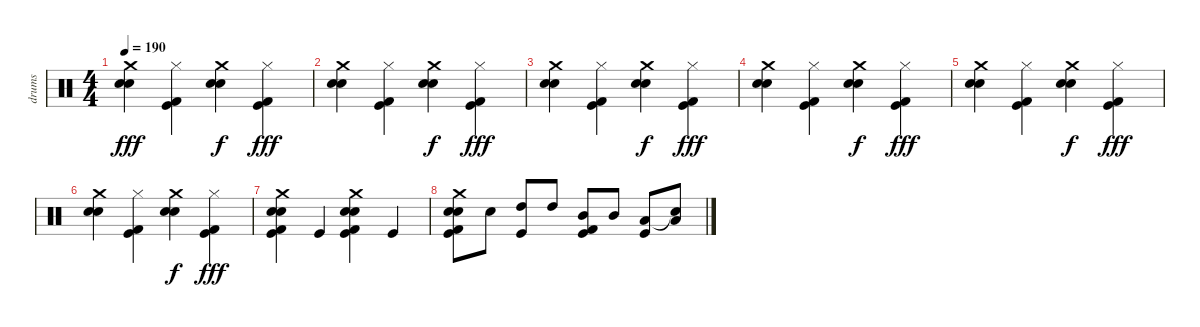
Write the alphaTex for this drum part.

\track ("drums" "drums") {instrument percussion}
\staff {score}
\articulation defaults
\ts (4 4)
\tempo 190
\clef neutral
\ks c
("Crash medium (hit)" "Electric Snare (hit)" "Snare (hit) 2").4{dy fff} ("Hi-Hat (closed)" "Kick (hit) 2" "Kick (hit)").4 ("Crash medium (hit)" "Electric Snare (hit)" "Snare (hit) 2").4{dy f} ("Hi-Hat (closed)" "Kick (hit) 2" "Kick (hit)").4{dy fff} |
("Crash medium (hit)" "Electric Snare (hit)" "Snare (hit) 2").4 ("Hi-Hat (closed)" "Kick (hit) 2" "Kick (hit)").4 ("Crash medium (hit)" "Electric Snare (hit)" "Snare (hit) 2").4{dy f} ("Hi-Hat (closed)" "Kick (hit) 2" "Kick (hit)").4{dy fff} |
("Crash medium (hit)" "Electric Snare (hit)" "Snare (hit) 2").4 ("Hi-Hat (closed)" "Kick (hit) 2" "Kick (hit)").4 ("Crash medium (hit)" "Electric Snare (hit)" "Snare (hit) 2").4{dy f} ("Hi-Hat (closed)" "Kick (hit) 2" "Kick (hit)").4{dy fff} |
("Crash medium (hit)" "Electric Snare (hit)" "Snare (hit) 2").4 ("Hi-Hat (closed)" "Kick (hit) 2" "Kick (hit)").4 ("Crash medium (hit)" "Electric Snare (hit)" "Snare (hit) 2").4{dy f} ("Hi-Hat (closed)" "Kick (hit) 2" "Kick (hit)").4{dy fff} |
("Crash medium (hit)" "Electric Snare (hit)" "Snare (hit) 2").4 ("Hi-Hat (closed)" "Kick (hit) 2" "Kick (hit)").4 ("Crash medium (hit)" "Electric Snare (hit)" "Snare (hit) 2").4{dy f} ("Hi-Hat (closed)" "Kick (hit) 2" "Kick (hit)").4{dy fff} |
("Crash medium (hit)" "Electric Snare (hit)" "Snare (hit) 2").4 ("Hi-Hat (closed)" "Kick (hit) 2" "Kick (hit)").4 ("Crash medium (hit)" "Electric Snare (hit)" "Snare (hit) 2").4{dy f} ("Hi-Hat (closed)" "Kick (hit) 2" "Kick (hit)").4{dy fff} |
("Crash medium (hit)" "Snare (hit) 2" "Electric Snare (hit)" "Kick (hit) 2" "Kick (hit)").4 "Kick (hit)".4 ("Crash medium (hit)" "Snare (hit) 2" "Electric Snare (hit)" "Kick (hit) 2" "Kick (hit)").4 "Kick (hit)".4 |
("Crash medium (hit)" "Snare (hit) 2" "Electric Snare (hit)" "Kick (hit) 2" "Kick (hit)").8 "Electric Snare (hit)".8 ("High Tom (hit)" "Kick (hit)").8 "High Tom (hit)".8 ("Mid Tom (hit)" "Kick (hit) 2" "Kick (hit)").8 "Mid Tom (hit)".8 ("Low Tom (hit)" "Kick (hit)").8 ("Snare (hit)"{t} "Low Tom (hit)").8
